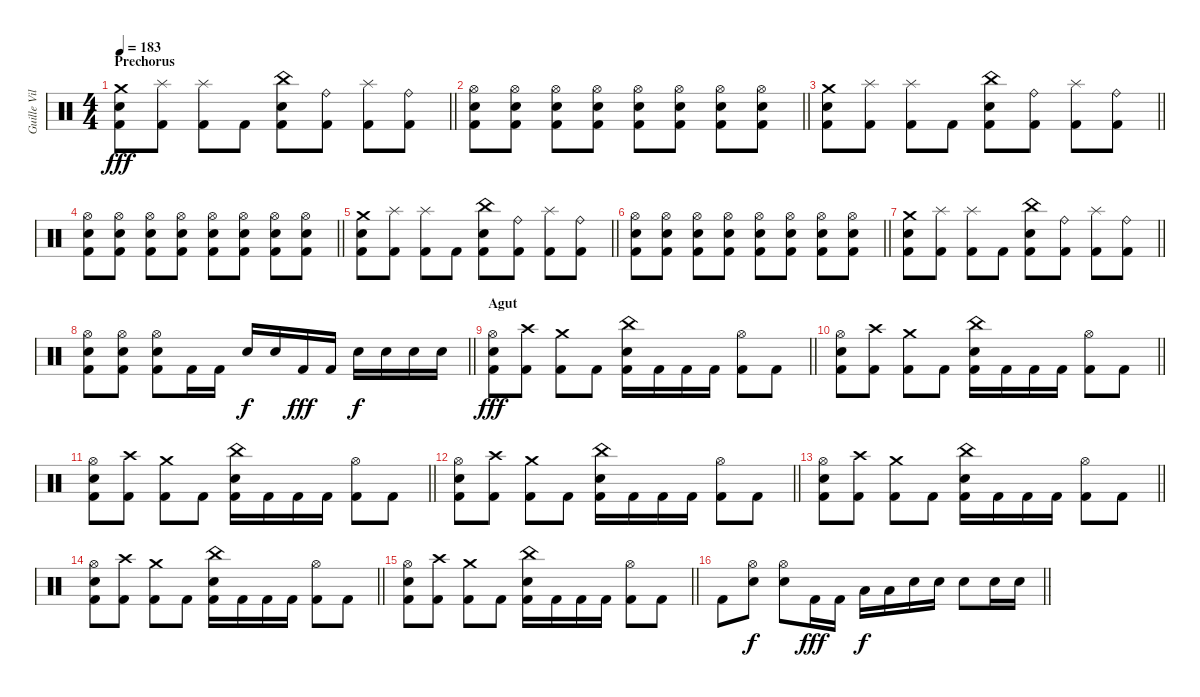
\track ("Guille Vila" "Guille Vil") {instrument percussion}
\staff {score}
\articulation defaults
\ts (4 4)
\section ("" "Prechorus")
\tempo 183
\clef neutral
\barLineRight lightlight
\ks c
("Crash medium (hit)" "Snare (hit) 2" "Kick (hit) 2").8{dy fff} ("Splash (hit)" "Kick (hit) 2").8 ("Splash (hit)" "Kick (hit) 2").8 "Kick (hit) 2".8 ("China (hit)" "Snare (hit) 2" "Kick (hit) 2").8 ("Ride (bell)" "Kick (hit) 2").8 ("Splash (hit)" "Kick (hit) 2").8 ("Ride (bell)" "Kick (hit) 2").8 |
\barLineRight lightlight
("Hi-Hat (open)" "Snare (hit) 2" "Kick (hit) 2").8 ("Hi-Hat (open)" "Snare (hit) 2" "Kick (hit) 2").8 ("Hi-Hat (open)" "Snare (hit) 2" "Kick (hit) 2").8 ("Hi-Hat (open)" "Snare (hit) 2" "Kick (hit) 2").8 ("Hi-Hat (open)" "Snare (hit) 2" "Kick (hit) 2").8 ("Hi-Hat (open)" "Snare (hit) 2" "Kick (hit) 2").8 ("Hi-Hat (open)" "Snare (hit) 2" "Kick (hit) 2").8 ("Hi-Hat (open)" "Snare (hit) 2" "Kick (hit) 2").8 |
\barLineRight lightlight
("Crash medium (hit)" "Snare (hit) 2" "Kick (hit) 2").8 ("Splash (hit)" "Kick (hit) 2").8 ("Splash (hit)" "Kick (hit) 2").8 "Kick (hit) 2".8 ("China (hit)" "Snare (hit) 2" "Kick (hit) 2").8 ("Ride (bell)" "Kick (hit) 2").8 ("Splash (hit)" "Kick (hit) 2").8 ("Ride (bell)" "Kick (hit) 2").8 |
\barLineRight lightlight
("Hi-Hat (open)" "Snare (hit) 2" "Kick (hit) 2").8 ("Hi-Hat (open)" "Snare (hit) 2" "Kick (hit) 2").8 ("Hi-Hat (open)" "Snare (hit) 2" "Kick (hit) 2").8 ("Hi-Hat (open)" "Snare (hit) 2" "Kick (hit) 2").8 ("Hi-Hat (open)" "Snare (hit) 2" "Kick (hit) 2").8 ("Hi-Hat (open)" "Snare (hit) 2" "Kick (hit) 2").8 ("Hi-Hat (open)" "Snare (hit) 2" "Kick (hit) 2").8 ("Hi-Hat (open)" "Snare (hit) 2" "Kick (hit) 2").8 |
\barLineRight lightlight
("Crash medium (hit)" "Snare (hit) 2" "Kick (hit) 2").8 ("Splash (hit)" "Kick (hit) 2").8 ("Splash (hit)" "Kick (hit) 2").8 "Kick (hit) 2".8 ("China (hit)" "Snare (hit) 2" "Kick (hit) 2").8 ("Ride (bell)" "Kick (hit) 2").8 ("Splash (hit)" "Kick (hit) 2").8 ("Ride (bell)" "Kick (hit) 2").8 |
\barLineRight lightlight
("Hi-Hat (open)" "Snare (hit) 2" "Kick (hit) 2").8 ("Hi-Hat (open)" "Snare (hit) 2" "Kick (hit) 2").8 ("Hi-Hat (open)" "Snare (hit) 2" "Kick (hit) 2").8 ("Hi-Hat (open)" "Snare (hit) 2" "Kick (hit) 2").8 ("Hi-Hat (open)" "Snare (hit) 2" "Kick (hit) 2").8 ("Hi-Hat (open)" "Snare (hit) 2" "Kick (hit) 2").8 ("Hi-Hat (open)" "Snare (hit) 2" "Kick (hit) 2").8 ("Hi-Hat (open)" "Snare (hit) 2" "Kick (hit) 2").8 |
\barLineRight lightlight
("Crash medium (hit)" "Snare (hit) 2" "Kick (hit) 2").8 ("Splash (hit)" "Kick (hit) 2").8 ("Splash (hit)" "Kick (hit) 2").8 "Kick (hit) 2".8 ("China (hit)" "Snare (hit) 2" "Kick (hit) 2").8 ("Ride (bell)" "Kick (hit) 2").8 ("Splash (hit)" "Kick (hit) 2").8 ("Ride (bell)" "Kick (hit) 2").8 |
\barLineRight lightlight
("Hi-Hat (open)" "Snare (hit) 2" "Kick (hit) 2").8 ("Hi-Hat (open)" "Snare (hit) 2" "Kick (hit) 2").8 ("Hi-Hat (open)" "Snare (hit) 2" "Kick (hit) 2").8 "Kick (hit) 2".16 "Kick (hit) 2".16 "Snare (hit) 2".16{dy f} "Snare (hit) 2".16 "Kick (hit) 2".16{dy fff} "Kick (hit) 2".16 "Snare (hit) 2".16{dy f} "Snare (hit) 2".16 "Snare (hit) 2".16 "Snare (hit) 2".16 |
\section ("" "Agut")
\barLineRight lightlight
("Hi-Hat (open)" "Snare (hit) 2" "Kick (hit) 2").8{dy fff} ("Crash high (hit)" "Kick (hit) 2").8 ("Crash medium (hit)" "Kick (hit) 2").8 "Kick (hit) 2".8 ("China (hit)" "Snare (hit) 2" "Kick (hit) 2").16 "Kick (hit) 2".16 "Kick (hit) 2".16 "Kick (hit) 2".16 ("Hi-Hat (open)" "Kick (hit) 2").8 "Kick (hit) 2".8 |
\barLineRight lightlight
("Hi-Hat (open)" "Snare (hit) 2" "Kick (hit) 2").8 ("Crash high (hit)" "Kick (hit) 2").8 ("Crash medium (hit)" "Kick (hit) 2").8 "Kick (hit) 2".8 ("China (hit)" "Snare (hit) 2" "Kick (hit) 2").16 "Kick (hit) 2".16 "Kick (hit) 2".16 "Kick (hit) 2".16 ("Hi-Hat (open)" "Kick (hit) 2").8 "Kick (hit) 2".8 |
\barLineRight lightlight
("Hi-Hat (open)" "Snare (hit) 2" "Kick (hit) 2").8 ("Crash high (hit)" "Kick (hit) 2").8 ("Crash medium (hit)" "Kick (hit) 2").8 "Kick (hit) 2".8 ("China (hit)" "Snare (hit) 2" "Kick (hit) 2").16 "Kick (hit) 2".16 "Kick (hit) 2".16 "Kick (hit) 2".16 ("Hi-Hat (open)" "Kick (hit) 2").8 "Kick (hit) 2".8 |
\barLineRight lightlight
("Hi-Hat (open)" "Snare (hit) 2" "Kick (hit) 2").8 ("Crash high (hit)" "Kick (hit) 2").8 ("Crash medium (hit)" "Kick (hit) 2").8 "Kick (hit) 2".8 ("China (hit)" "Snare (hit) 2" "Kick (hit) 2").16 "Kick (hit) 2".16 "Kick (hit) 2".16 "Kick (hit) 2".16 ("Hi-Hat (open)" "Kick (hit) 2").8 "Kick (hit) 2".8 |
\barLineRight lightlight
("Hi-Hat (open)" "Snare (hit) 2" "Kick (hit) 2").8 ("Crash high (hit)" "Kick (hit) 2").8 ("Crash medium (hit)" "Kick (hit) 2").8 "Kick (hit) 2".8 ("China (hit)" "Snare (hit) 2" "Kick (hit) 2").16 "Kick (hit) 2".16 "Kick (hit) 2".16 "Kick (hit) 2".16 ("Hi-Hat (open)" "Kick (hit) 2").8 "Kick (hit) 2".8 |
\barLineRight lightlight
("Hi-Hat (open)" "Snare (hit) 2" "Kick (hit) 2").8 ("Crash high (hit)" "Kick (hit) 2").8 ("Crash medium (hit)" "Kick (hit) 2").8 "Kick (hit) 2".8 ("China (hit)" "Snare (hit) 2" "Kick (hit) 2").16 "Kick (hit) 2".16 "Kick (hit) 2".16 "Kick (hit) 2".16 ("Hi-Hat (open)" "Kick (hit) 2").8 "Kick (hit) 2".8 |
\barLineRight lightlight
("Hi-Hat (open)" "Snare (hit) 2" "Kick (hit) 2").8 ("Crash high (hit)" "Kick (hit) 2").8 ("Crash medium (hit)" "Kick (hit) 2").8 "Kick (hit) 2".8 ("China (hit)" "Snare (hit) 2" "Kick (hit) 2").16 "Kick (hit) 2".16 "Kick (hit) 2".16 "Kick (hit) 2".16 ("Hi-Hat (open)" "Kick (hit) 2").8 "Kick (hit) 2".8 |
\barLineRight lightlight "Kick (hit) 2".8
("Hi-Hat (open)" "Snare (hit) 2").8{dy f} ("Hi-Hat (open)" "Snare (hit) 2").8 "Kick (hit) 2".16{dy fff} "Kick (hit) 2".16 "Low Tom (hit)".16{dy f} "Low Tom (hit)".16 "Snare (hit) 2".16 "Snare (hit) 2".16 "Snare (hit) 2".8 "Snare (hit) 2".16 "Snare (hit) 2".16
